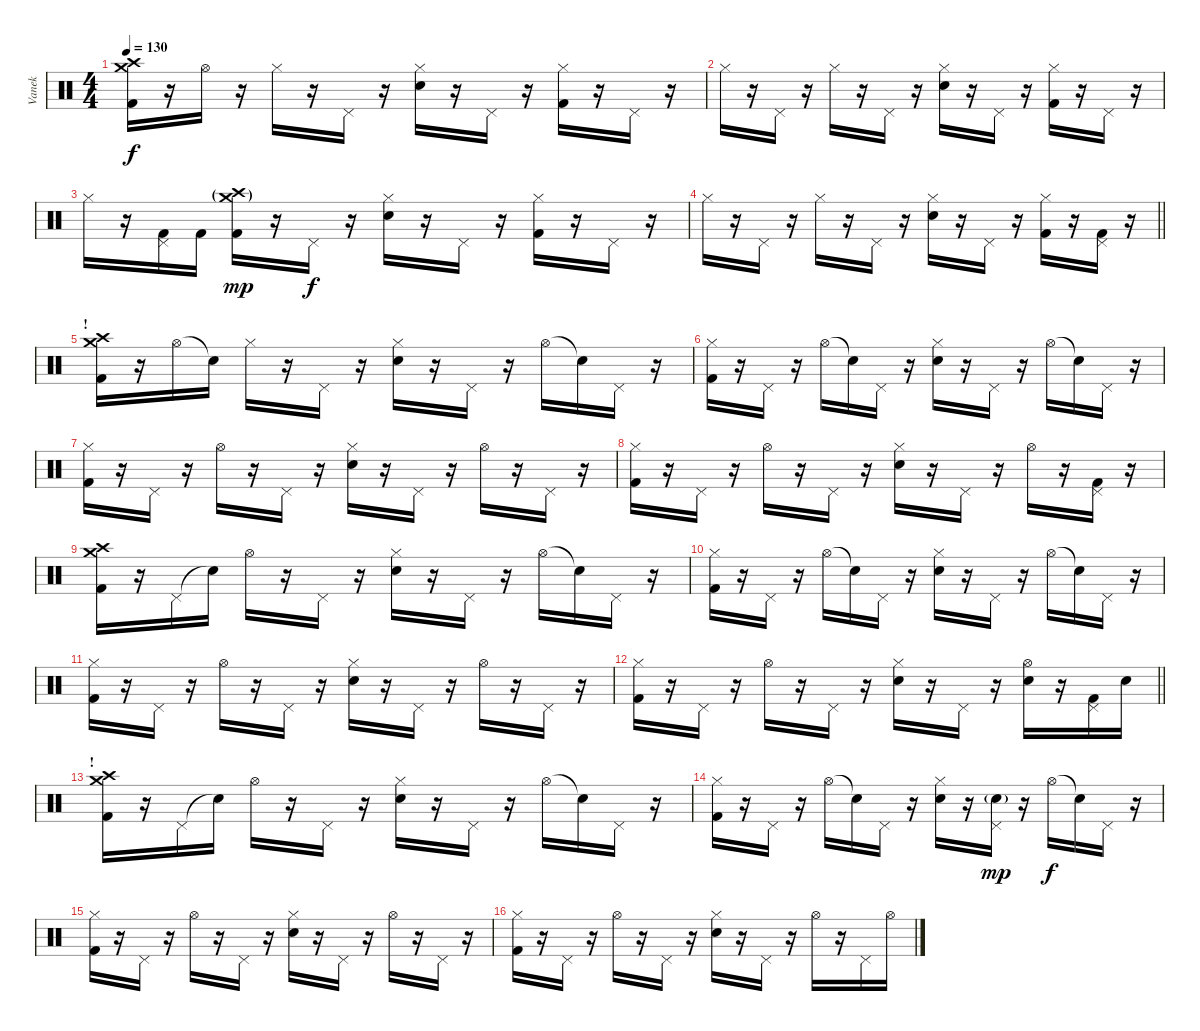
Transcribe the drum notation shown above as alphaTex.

\track ("Vanek" "Vanek") {instrument percussion}
\staff {score}
\articulation defaults
\ts (4 4)
\tempo 130
\clef neutral
\ks c
("Crash medium (hit)" "Crash high (hit)" "Kick (hit) 2").16{dy f} r.16 "Hi-Hat (open)".16 r.16 "Hi-Hat (closed)".16 r.16 "Pedal Hi-Hat (hit)".16 r.16 ("Hi-Hat (closed)" "Electric Snare (hit)").16 r.16 "Pedal Hi-Hat (hit)".16 r.16 ("Hi-Hat (closed)" "Kick (hit) 2").16 r.16 "Pedal Hi-Hat (hit)".16 r.16 |
"Hi-Hat (closed)".16 r.16 "Pedal Hi-Hat (hit)".16 r.16 "Hi-Hat (closed)".16 r.16 "Pedal Hi-Hat (hit)".16 r.16 ("Hi-Hat (closed)" "Electric Snare (hit)").16 r.16 "Pedal Hi-Hat (hit)".16 r.16 ("Hi-Hat (closed)" "Kick (hit) 2").16 r.16 "Pedal Hi-Hat (hit)".16 r.16 |
"Hi-Hat (closed)".16 r.16 ("Pedal Hi-Hat (hit)" "Kick (hit) 2").16 "Kick (hit) 2".16 ("Crash high (hit)"{g} "Crash medium (hit)"{g} "Kick (hit) 2").16{dy mp} r.16 "Pedal Hi-Hat (hit)".16{dy f} r.16 ("Hi-Hat (closed)" "Electric Snare (hit)").16 r.16 "Pedal Hi-Hat (hit)".16 r.16 ("Hi-Hat (closed)" "Kick (hit) 2").16 r.16 "Pedal Hi-Hat (hit)".16 r.16 |
\barLineRight lightlight "Hi-Hat (closed)".16
r.16 "Pedal Hi-Hat (hit)".16 r.16 "Hi-Hat (closed)".16 r.16 "Pedal Hi-Hat (hit)".16 r.16 ("Hi-Hat (closed)" "Electric Snare (hit)").16 r.16 "Pedal Hi-Hat (hit)".16 r.16 ("Hi-Hat (closed)" "Kick (hit) 2").16 r.16 ("Pedal Hi-Hat (hit)" "Kick (hit) 2").16 r.16 |
\section ("" "!")
("Crash medium (hit)" "Crash high (hit)" "Kick (hit) 2").16 r.16 "Hi-Hat (open)".16 "Snare (hit)"{t}.16 "Hi-Hat (closed)".16 r.16 "Pedal Hi-Hat (hit)".16 r.16 ("Hi-Hat (closed)" "Electric Snare (hit)").16 r.16 "Pedal Hi-Hat (hit)".16 r.16 "Hi-Hat (open)".16 "Snare (hit)"{t}.16 "Pedal Hi-Hat (hit)".16 r.16 |
("Hi-Hat (closed)" "Kick (hit) 2").16 r.16 "Pedal Hi-Hat (hit)".16 r.16 "Hi-Hat (open)".16 "Snare (hit)"{t}.16 "Pedal Hi-Hat (hit)".16 r.16 ("Hi-Hat (closed)" "Electric Snare (hit)").16 r.16 "Pedal Hi-Hat (hit)".16 r.16 "Hi-Hat (open)".16 "Snare (hit)"{t}.16 "Pedal Hi-Hat (hit)".16 r.16 |
("Hi-Hat (closed)" "Kick (hit) 2").16 r.16 "Pedal Hi-Hat (hit)".16 r.16 "Hi-Hat (open)".16 r.16 "Pedal Hi-Hat (hit)".16 r.16 ("Hi-Hat (closed)" "Electric Snare (hit)").16 r.16 "Pedal Hi-Hat (hit)".16 r.16 "Hi-Hat (open)".16 r.16 "Pedal Hi-Hat (hit)".16 r.16 |
("Hi-Hat (closed)" "Kick (hit) 2").16 r.16 "Pedal Hi-Hat (hit)".16 r.16 "Hi-Hat (open)".16 r.16 "Pedal Hi-Hat (hit)".16 r.16 ("Hi-Hat (closed)" "Electric Snare (hit)").16 r.16 "Pedal Hi-Hat (hit)".16 r.16 "Hi-Hat (open)".16 r.16 ("Pedal Hi-Hat (hit)" "Kick (hit) 2").16 r.16 |
("Crash medium (hit)" "Crash high (hit)" "Kick (hit) 2").16 r.16 "Pedal Hi-Hat (hit)".16 "Snare (hit)"{t}.16 "Hi-Hat (open)".16 r.16 "Pedal Hi-Hat (hit)".16 r.16 ("Hi-Hat (closed)" "Electric Snare (hit)").16 r.16 "Pedal Hi-Hat (hit)".16 r.16 "Hi-Hat (open)".16 "Snare (hit)"{t}.16 "Pedal Hi-Hat (hit)".16 r.16 |
("Hi-Hat (closed)" "Kick (hit) 2").16 r.16 "Pedal Hi-Hat (hit)".16 r.16 "Hi-Hat (open)".16 "Snare (hit)"{t}.16 "Pedal Hi-Hat (hit)".16 r.16 ("Hi-Hat (closed)" "Electric Snare (hit)").16 r.16 "Pedal Hi-Hat (hit)".16 r.16 "Hi-Hat (open)".16 "Snare (hit)"{t}.16 "Pedal Hi-Hat (hit)".16 r.16 |
("Hi-Hat (closed)" "Kick (hit) 2").16 r.16 "Pedal Hi-Hat (hit)".16 r.16 "Hi-Hat (open)".16 r.16 "Pedal Hi-Hat (hit)".16 r.16 ("Hi-Hat (closed)" "Electric Snare (hit)").16 r.16 "Pedal Hi-Hat (hit)".16 r.16 "Hi-Hat (open)".16 r.16 "Pedal Hi-Hat (hit)".16 r.16 |
\barLineRight lightlight
("Hi-Hat (closed)" "Kick (hit) 2").16 r.16 "Pedal Hi-Hat (hit)".16 r.16 "Hi-Hat (open)".16 r.16 "Pedal Hi-Hat (hit)".16 r.16 ("Hi-Hat (closed)" "Electric Snare (hit)").16 r.16 "Pedal Hi-Hat (hit)".16 r.16 ("Hi-Hat (open)" "Electric Snare (hit)").16 r.16 ("Pedal Hi-Hat (hit)" "Kick (hit) 2").16 "Electric Snare (hit)".16 |
\section ("" "!")
("Crash medium (hit)" "Crash high (hit)" "Kick (hit) 2").16 r.16 "Pedal Hi-Hat (hit)".16 "Snare (hit)"{t}.16 "Hi-Hat (open)".16 r.16 "Pedal Hi-Hat (hit)".16 r.16 ("Hi-Hat (closed)" "Electric Snare (hit)").16 r.16 "Pedal Hi-Hat (hit)".16 r.16 "Hi-Hat (open)".16 "Snare (hit)"{t}.16 "Pedal Hi-Hat (hit)".16 r.16 |
("Hi-Hat (closed)" "Kick (hit) 2").16 r.16 "Pedal Hi-Hat (hit)".16 r.16 "Hi-Hat (open)".16 "Snare (hit)"{t}.16 "Pedal Hi-Hat (hit)".16 r.16 ("Hi-Hat (closed)" "Electric Snare (hit)").16 r.16 ("Pedal Hi-Hat (hit)" "Electric Snare (hit)"{g}).16{dy mp} r.16 "Hi-Hat (open)".16{dy f} "Snare (hit)"{t}.16 "Pedal Hi-Hat (hit)".16 r.16 |
("Hi-Hat (closed)" "Kick (hit) 2").16 r.16 "Pedal Hi-Hat (hit)".16 r.16 "Hi-Hat (open)".16 r.16 "Pedal Hi-Hat (hit)".16 r.16 ("Hi-Hat (closed)" "Electric Snare (hit)").16 r.16 "Pedal Hi-Hat (hit)".16 r.16 "Hi-Hat (open)".16 r.16 "Pedal Hi-Hat (hit)".16 r.16 |
("Hi-Hat (closed)" "Kick (hit) 2").16 r.16 "Pedal Hi-Hat (hit)".16 r.16 "Hi-Hat (open)".16 r.16 "Pedal Hi-Hat (hit)".16 r.16 ("Hi-Hat (closed)" "Electric Snare (hit)").16 r.16 "Pedal Hi-Hat (hit)".16 r.16 "Hi-Hat (open)".16 r.16 "Pedal Hi-Hat (hit)".16 "Hi-Hat (open)".16
